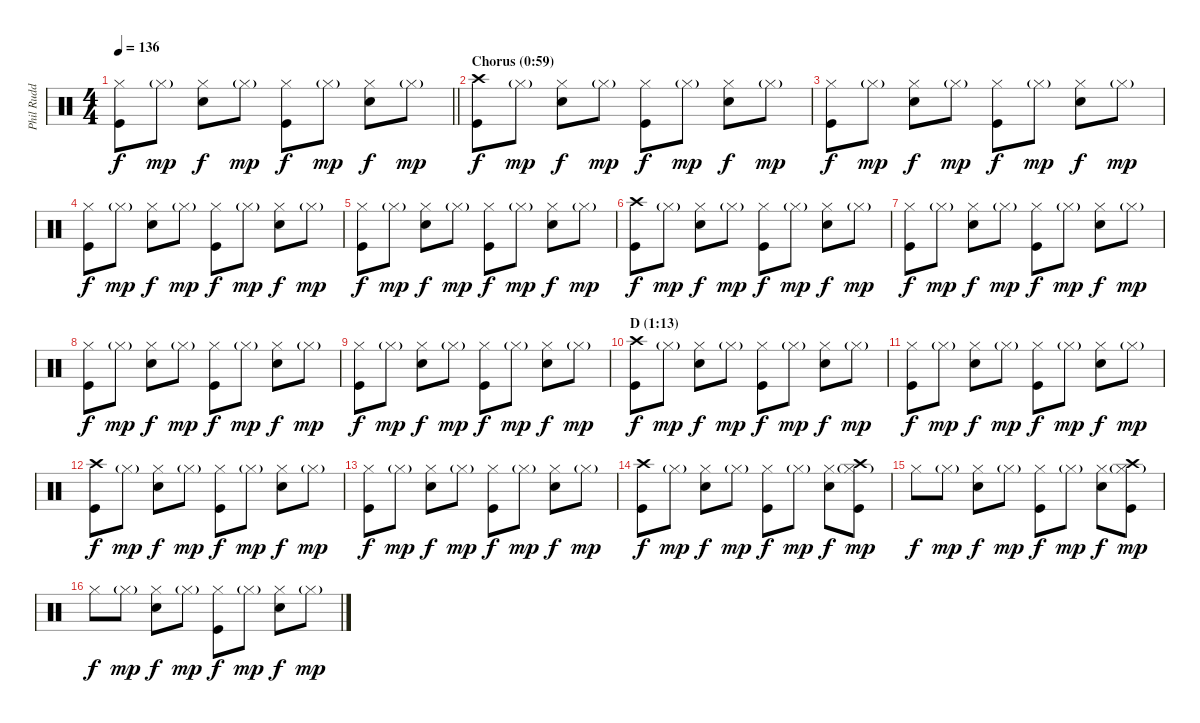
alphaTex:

\track ("Phil Rudd" "Phil Rudd") {instrument percussion}
\staff {score}
\articulation defaults
\ts (4 4)
\tempo 136
\clef neutral
\barLineRight lightlight
\ks c
("Hi-Hat (closed)" "Kick (hit)").8{dy f} "Hi-Hat (closed)"{g}.8{dy mp} ("Hi-Hat (closed)" "Electric Snare (hit)").8{dy f} "Hi-Hat (closed)"{g}.8{dy mp} ("Hi-Hat (closed)" "Kick (hit)").8{dy f} "Hi-Hat (closed)"{g}.8{dy mp} ("Hi-Hat (closed)" "Electric Snare (hit)").8{dy f} "Hi-Hat (closed)"{g}.8{dy mp} |
\section ("" "Chorus (0:59)")
("Crash high (hit)" "Kick (hit)").8{dy f} "Hi-Hat (closed)"{g}.8{dy mp} ("Hi-Hat (closed)" "Electric Snare (hit)").8{dy f} "Hi-Hat (closed)"{g}.8{dy mp} ("Hi-Hat (closed)" "Kick (hit)").8{dy f} "Hi-Hat (closed)"{g}.8{dy mp} ("Hi-Hat (closed)" "Electric Snare (hit)").8{dy f} "Hi-Hat (closed)"{g}.8{dy mp} |
("Hi-Hat (closed)" "Kick (hit)").8{dy f} "Hi-Hat (closed)"{g}.8{dy mp} ("Hi-Hat (closed)" "Electric Snare (hit)").8{dy f} "Hi-Hat (closed)"{g}.8{dy mp} ("Hi-Hat (closed)" "Kick (hit)").8{dy f} "Hi-Hat (closed)"{g}.8{dy mp} ("Hi-Hat (closed)" "Electric Snare (hit)").8{dy f} "Hi-Hat (closed)"{g}.8{dy mp} |
("Hi-Hat (closed)" "Kick (hit)").8{dy f} "Hi-Hat (closed)"{g}.8{dy mp} ("Hi-Hat (closed)" "Electric Snare (hit)").8{dy f} "Hi-Hat (closed)"{g}.8{dy mp} ("Hi-Hat (closed)" "Kick (hit)").8{dy f} "Hi-Hat (closed)"{g}.8{dy mp} ("Hi-Hat (closed)" "Electric Snare (hit)").8{dy f} "Hi-Hat (closed)"{g}.8{dy mp} |
("Hi-Hat (closed)" "Kick (hit)").8{dy f} "Hi-Hat (closed)"{g}.8{dy mp} ("Hi-Hat (closed)" "Electric Snare (hit)").8{dy f} "Hi-Hat (closed)"{g}.8{dy mp} ("Hi-Hat (closed)" "Kick (hit)").8{dy f} "Hi-Hat (closed)"{g}.8{dy mp} ("Hi-Hat (closed)" "Electric Snare (hit)").8{dy f} "Hi-Hat (closed)"{g}.8{dy mp} |
("Crash high (hit)" "Kick (hit)").8{dy f} "Hi-Hat (closed)"{g}.8{dy mp} ("Hi-Hat (closed)" "Electric Snare (hit)").8{dy f} "Hi-Hat (closed)"{g}.8{dy mp} ("Hi-Hat (closed)" "Kick (hit)").8{dy f} "Hi-Hat (closed)"{g}.8{dy mp} ("Hi-Hat (closed)" "Electric Snare (hit)").8{dy f} "Hi-Hat (closed)"{g}.8{dy mp} |
("Hi-Hat (closed)" "Kick (hit)").8{dy f} "Hi-Hat (closed)"{g}.8{dy mp} ("Hi-Hat (closed)" "Electric Snare (hit)").8{dy f} "Hi-Hat (closed)"{g}.8{dy mp} ("Hi-Hat (closed)" "Kick (hit)").8{dy f} "Hi-Hat (closed)"{g}.8{dy mp} ("Hi-Hat (closed)" "Electric Snare (hit)").8{dy f} "Hi-Hat (closed)"{g}.8{dy mp} |
("Hi-Hat (closed)" "Kick (hit)").8{dy f} "Hi-Hat (closed)"{g}.8{dy mp} ("Hi-Hat (closed)" "Electric Snare (hit)").8{dy f} "Hi-Hat (closed)"{g}.8{dy mp} ("Hi-Hat (closed)" "Kick (hit)").8{dy f} "Hi-Hat (closed)"{g}.8{dy mp} ("Hi-Hat (closed)" "Electric Snare (hit)").8{dy f} "Hi-Hat (closed)"{g}.8{dy mp} |
("Hi-Hat (closed)" "Kick (hit)").8{dy f} "Hi-Hat (closed)"{g}.8{dy mp} ("Hi-Hat (closed)" "Electric Snare (hit)").8{dy f} "Hi-Hat (closed)"{g}.8{dy mp} ("Hi-Hat (closed)" "Kick (hit)").8{dy f} "Hi-Hat (closed)"{g}.8{dy mp} ("Hi-Hat (closed)" "Electric Snare (hit)").8{dy f} "Hi-Hat (closed)"{g}.8{dy mp} |
\section ("" "D (1:13)")
("Crash high (hit)" "Kick (hit)").8{dy f} "Hi-Hat (closed)"{g}.8{dy mp} ("Hi-Hat (closed)" "Electric Snare (hit)").8{dy f} "Hi-Hat (closed)"{g}.8{dy mp} ("Hi-Hat (closed)" "Kick (hit)").8{dy f} "Hi-Hat (closed)"{g}.8{dy mp} ("Hi-Hat (closed)" "Electric Snare (hit)").8{dy f} "Hi-Hat (closed)"{g}.8{dy mp} |
("Hi-Hat (closed)" "Kick (hit)").8{dy f} "Hi-Hat (closed)"{g}.8{dy mp} ("Hi-Hat (closed)" "Electric Snare (hit)").8{dy f} "Hi-Hat (closed)"{g}.8{dy mp} ("Hi-Hat (closed)" "Kick (hit)").8{dy f} "Hi-Hat (closed)"{g}.8{dy mp} ("Hi-Hat (closed)" "Electric Snare (hit)").8{dy f} "Hi-Hat (closed)"{g}.8{dy mp} |
("Crash high (hit)" "Kick (hit)").8{dy f} "Hi-Hat (closed)"{g}.8{dy mp} ("Hi-Hat (closed)" "Electric Snare (hit)").8{dy f} "Hi-Hat (closed)"{g}.8{dy mp} ("Hi-Hat (closed)" "Kick (hit)").8{dy f} "Hi-Hat (closed)"{g}.8{dy mp} ("Hi-Hat (closed)" "Electric Snare (hit)").8{dy f} "Hi-Hat (closed)"{g}.8{dy mp} |
("Hi-Hat (closed)" "Kick (hit)").8{dy f} "Hi-Hat (closed)"{g}.8{dy mp} ("Hi-Hat (closed)" "Electric Snare (hit)").8{dy f} "Hi-Hat (closed)"{g}.8{dy mp} ("Hi-Hat (closed)" "Kick (hit)").8{dy f} "Hi-Hat (closed)"{g}.8{dy mp} ("Hi-Hat (closed)" "Electric Snare (hit)").8{dy f} "Hi-Hat (closed)"{g}.8{dy mp} |
("Crash high (hit)" "Kick (hit)").8{dy f} "Hi-Hat (closed)"{g}.8{dy mp} ("Hi-Hat (closed)" "Electric Snare (hit)").8{dy f} "Hi-Hat (closed)"{g}.8{dy mp} ("Hi-Hat (closed)" "Kick (hit)").8{dy f} "Hi-Hat (closed)"{g}.8{dy mp} ("Hi-Hat (closed)" "Electric Snare (hit)").8{dy f} ("Crash high (hit)" "Hi-Hat (closed)"{g} "Kick (hit)").8{dy mp} |
"Hi-Hat (closed)".8{dy f} "Hi-Hat (closed)"{g}.8{dy mp} ("Hi-Hat (closed)" "Electric Snare (hit)").8{dy f} "Hi-Hat (closed)"{g}.8{dy mp} ("Hi-Hat (closed)" "Kick (hit)").8{dy f} "Hi-Hat (closed)"{g}.8{dy mp} ("Hi-Hat (closed)" "Electric Snare (hit)").8{dy f} ("Crash high (hit)" "Hi-Hat (closed)"{g} "Kick (hit)").8{dy mp} |
"Hi-Hat (closed)".8{dy f} "Hi-Hat (closed)"{g}.8{dy mp} ("Hi-Hat (closed)" "Electric Snare (hit)").8{dy f} "Hi-Hat (closed)"{g}.8{dy mp} ("Hi-Hat (closed)" "Kick (hit)").8{dy f} "Hi-Hat (closed)"{g}.8{dy mp} ("Hi-Hat (closed)" "Electric Snare (hit)").8{dy f} "Hi-Hat (closed)"{g}.8{dy mp}
